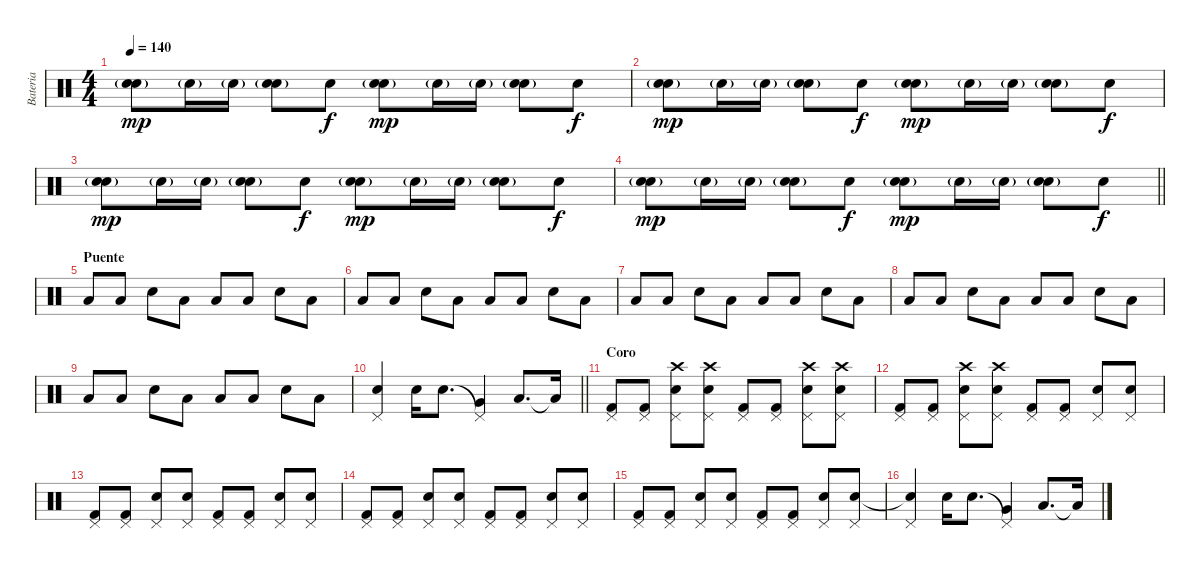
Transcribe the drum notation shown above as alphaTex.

\track ("Bateria" "Bateria") {instrument percussion}
\staff {score}
\articulation defaults
\ts (4 4)
\tempo 140
\clef neutral
\ks c
("Snare (hit) 2" "Electric Snare (hit)"{g}).8{dy mp} "Electric Snare (hit)"{g}.16 "Electric Snare (hit)"{g}.16 ("Snare (hit) 2" "Electric Snare (hit)"{g}).8 "Electric Snare (hit)".8{dy f} ("Snare (hit) 2" "Electric Snare (hit)"{g}).8{dy mp} "Electric Snare (hit)"{g}.16 "Electric Snare (hit)"{g}.16 ("Snare (hit) 2" "Electric Snare (hit)"{g}).8 "Electric Snare (hit)".8{dy f} |
("Snare (hit) 2" "Electric Snare (hit)"{g}).8{dy mp} "Electric Snare (hit)"{g}.16 "Electric Snare (hit)"{g}.16 ("Snare (hit) 2" "Electric Snare (hit)"{g}).8 "Electric Snare (hit)".8{dy f} ("Snare (hit) 2" "Electric Snare (hit)"{g}).8{dy mp} "Electric Snare (hit)"{g}.16 "Electric Snare (hit)"{g}.16 ("Snare (hit) 2" "Electric Snare (hit)"{g}).8 "Electric Snare (hit)".8{dy f} |
("Snare (hit) 2" "Electric Snare (hit)"{g}).8{dy mp} "Electric Snare (hit)"{g}.16 "Electric Snare (hit)"{g}.16 ("Snare (hit) 2" "Electric Snare (hit)"{g}).8 "Electric Snare (hit)".8{dy f} ("Snare (hit) 2" "Electric Snare (hit)"{g}).8{dy mp} "Electric Snare (hit)"{g}.16 "Electric Snare (hit)"{g}.16 ("Snare (hit) 2" "Electric Snare (hit)"{g}).8 "Electric Snare (hit)".8{dy f} |
\barLineRight lightlight
("Snare (hit) 2" "Electric Snare (hit)"{g}).8{dy mp} "Electric Snare (hit)"{g}.16 "Electric Snare (hit)"{g}.16 ("Snare (hit) 2" "Electric Snare (hit)"{g}).8 "Electric Snare (hit)".8{dy f} ("Snare (hit) 2" "Electric Snare (hit)"{g}).8{dy mp} "Electric Snare (hit)"{g}.16 "Electric Snare (hit)"{g}.16 ("Snare (hit) 2" "Electric Snare (hit)"{g}).8 "Electric Snare (hit)".8{dy f} |
\section ("" "Puente")
"Low Floor Tom (hit)".8 "Low Floor Tom (hit)".8 "Electric Snare (hit)".8 "Low Floor Tom (hit)".8 "Low Floor Tom (hit)".8 "Low Floor Tom (hit)".8 "Electric Snare (hit)".8 "Low Floor Tom (hit)".8 |
"Low Floor Tom (hit)".8 "Low Floor Tom (hit)".8 "Electric Snare (hit)".8 "Low Floor Tom (hit)".8 "Low Floor Tom (hit)".8 "Low Floor Tom (hit)".8 "Electric Snare (hit)".8 "Low Floor Tom (hit)".8 |
"Low Floor Tom (hit)".8 "Low Floor Tom (hit)".8 "Electric Snare (hit)".8 "Low Floor Tom (hit)".8 "Low Floor Tom (hit)".8 "Low Floor Tom (hit)".8 "Electric Snare (hit)".8 "Low Floor Tom (hit)".8 |
"Low Floor Tom (hit)".8 "Low Floor Tom (hit)".8 "Electric Snare (hit)".8 "Low Floor Tom (hit)".8 "Low Floor Tom (hit)".8 "Low Floor Tom (hit)".8 "Electric Snare (hit)".8 "Low Floor Tom (hit)".8 |
"Low Floor Tom (hit)".8 "Low Floor Tom (hit)".8 "Electric Snare (hit)".8 "Low Floor Tom (hit)".8 "Low Floor Tom (hit)".8 "Low Floor Tom (hit)".8 "Electric Snare (hit)".8 "Low Floor Tom (hit)".8 |
\barLineRight lightlight
("Pedal Hi-Hat (hit)" "Electric Snare (hit)").4 "Electric Snare (hit)".16 "Electric Snare (hit)".8{d} ("Pedal Hi-Hat (hit)"{t} "Very Low Tom (hit)").4 "Low Floor Tom (hit)".8{d} "Low Floor Tom (hit)"{t}.16 |
\section ("" "Coro")
("Pedal Hi-Hat (hit)" "Kick (hit) 2").8 ("Pedal Hi-Hat (hit)" "Kick (hit) 2").8 ("Crash high (hit)" "Pedal Hi-Hat (hit)" "Electric Snare (hit)").8 ("Crash high (hit)" "Pedal Hi-Hat (hit)" "Electric Snare (hit)").8 ("Pedal Hi-Hat (hit)" "Kick (hit) 2").8 ("Pedal Hi-Hat (hit)" "Kick (hit) 2").8 ("Crash high (hit)" "Pedal Hi-Hat (hit)" "Electric Snare (hit)").8 ("Crash high (hit)" "Pedal Hi-Hat (hit)" "Electric Snare (hit)").8 |
("Pedal Hi-Hat (hit)" "Kick (hit) 2").8 ("Pedal Hi-Hat (hit)" "Kick (hit) 2").8 ("Crash high (hit)" "Pedal Hi-Hat (hit)" "Electric Snare (hit)").8 ("Crash high (hit)" "Pedal Hi-Hat (hit)" "Electric Snare (hit)").8 ("Pedal Hi-Hat (hit)" "Kick (hit) 2").8 ("Pedal Hi-Hat (hit)" "Kick (hit) 2").8 ("Pedal Hi-Hat (hit)" "Electric Snare (hit)").8 ("Pedal Hi-Hat (hit)" "Electric Snare (hit)").8 |
("Pedal Hi-Hat (hit)" "Kick (hit) 2").8 ("Pedal Hi-Hat (hit)" "Kick (hit) 2").8 ("Pedal Hi-Hat (hit)" "Electric Snare (hit)").8 ("Pedal Hi-Hat (hit)" "Electric Snare (hit)").8 ("Pedal Hi-Hat (hit)" "Kick (hit) 2").8 ("Pedal Hi-Hat (hit)" "Kick (hit) 2").8 ("Pedal Hi-Hat (hit)" "Electric Snare (hit)").8 ("Pedal Hi-Hat (hit)" "Electric Snare (hit)").8 |
("Pedal Hi-Hat (hit)" "Kick (hit) 2").8 ("Pedal Hi-Hat (hit)" "Kick (hit) 2").8 ("Pedal Hi-Hat (hit)" "Electric Snare (hit)").8 ("Pedal Hi-Hat (hit)" "Electric Snare (hit)").8 ("Pedal Hi-Hat (hit)" "Kick (hit) 2").8 ("Pedal Hi-Hat (hit)" "Kick (hit) 2").8 ("Pedal Hi-Hat (hit)" "Electric Snare (hit)").8 ("Pedal Hi-Hat (hit)" "Electric Snare (hit)").8 |
("Pedal Hi-Hat (hit)" "Kick (hit) 2").8 ("Pedal Hi-Hat (hit)" "Kick (hit) 2").8 ("Pedal Hi-Hat (hit)" "Electric Snare (hit)").8 ("Pedal Hi-Hat (hit)" "Electric Snare (hit)").8 ("Pedal Hi-Hat (hit)" "Kick (hit) 2").8 ("Pedal Hi-Hat (hit)" "Kick (hit) 2").8 ("Pedal Hi-Hat (hit)" "Electric Snare (hit)").8 ("Pedal Hi-Hat (hit)" "Electric Snare (hit)").8 |
("Pedal Hi-Hat (hit)" "Electric Snare (hit)"{t}).4 "Electric Snare (hit)".16 "Electric Snare (hit)".8{d} ("Pedal Hi-Hat (hit)"{t} "Very Low Tom (hit)").4 "Low Floor Tom (hit)".8{d} "Low Floor Tom (hit)"{t}.16
